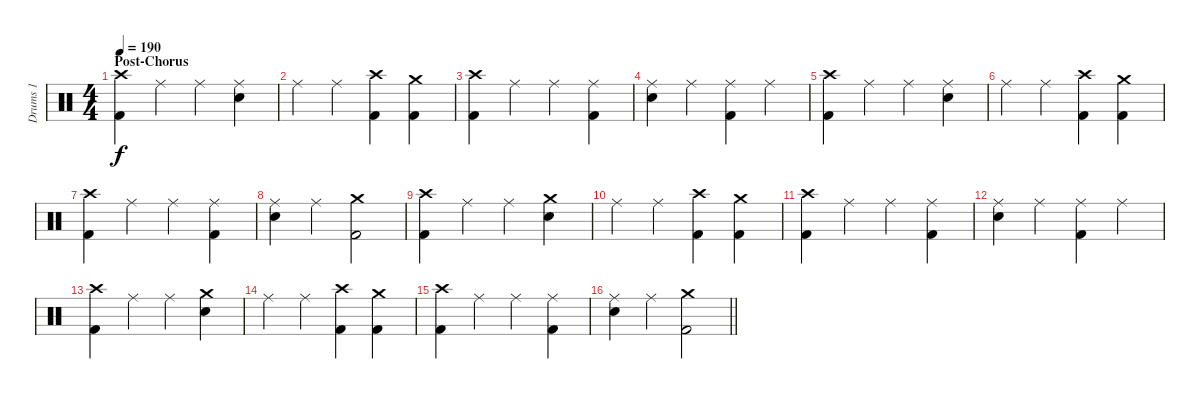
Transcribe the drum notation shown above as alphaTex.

\track ("Drums 1" "Drums 1") {instrument percussion}
\staff {score}
\articulation defaults
\ts (4 4)
\section ("" "Post-Chorus")
\tempo 190
\clef neutral
\ks c
("Crash high (hit)" "Kick (hit) 2").4{dy f} "Ride (middle)".4 "Ride (middle)".4 ("Ride (middle)" "Snare (hit) 2").4 |
"Ride (middle)".4 "Ride (middle)".4 ("Crash high (hit)" "Kick (hit) 2").4 ("Crash medium (hit)" "Kick (hit) 2").4 |
("Crash high (hit)" "Kick (hit) 2").4 "Ride (middle)".4 "Ride (middle)".4 ("Ride (middle)" "Kick (hit) 2").4 |
("Ride (middle)" "Snare (hit) 2").4 "Ride (middle)".4 ("Ride (middle)" "Kick (hit) 2").4 "Ride (middle)".4 |
("Crash high (hit)" "Kick (hit) 2").4 "Ride (middle)".4 "Ride (middle)".4 ("Ride (middle)" "Snare (hit) 2").4 |
"Ride (middle)".4 "Ride (middle)".4 ("Crash high (hit)" "Kick (hit) 2").4 ("Crash medium (hit)" "Kick (hit) 2").4 |
("Crash high (hit)" "Kick (hit) 2").4 "Ride (middle)".4 "Ride (middle)".4 ("Ride (middle)" "Kick (hit) 2").4 |
("Ride (middle)" "Snare (hit) 2").4 "Ride (middle)".4 ("Crash medium (hit)" "Kick (hit) 2").2 |
("Crash high (hit)" "Kick (hit) 2").4 "Ride (middle)".4 "Ride (middle)".4 ("Crash medium (hit)" "Snare (hit) 2").4 |
"Ride (middle)".4 "Ride (middle)".4 ("Crash high (hit)" "Kick (hit) 2").4 ("Crash medium (hit)" "Kick (hit) 2").4 |
("Crash high (hit)" "Kick (hit) 2").4 "Ride (middle)".4 "Ride (middle)".4 ("Ride (middle)" "Kick (hit) 2").4 |
("Ride (middle)" "Snare (hit) 2").4 "Ride (middle)".4 ("Ride (middle)" "Kick (hit) 2").4 "Ride (middle)".4 |
("Crash high (hit)" "Kick (hit) 2").4 "Ride (middle)".4 "Ride (middle)".4 ("Crash medium (hit)" "Snare (hit) 2").4 |
"Ride (middle)".4 "Ride (middle)".4 ("Crash high (hit)" "Kick (hit) 2").4 ("Crash medium (hit)" "Kick (hit) 2").4 |
("Crash high (hit)" "Kick (hit) 2").4 "Ride (middle)".4 "Ride (middle)".4 ("Ride (middle)" "Kick (hit) 2").4 |
\barLineRight lightlight
("Ride (middle)" "Snare (hit) 2").4 "Ride (middle)".4 ("Crash medium (hit)" "Kick (hit) 2").2
